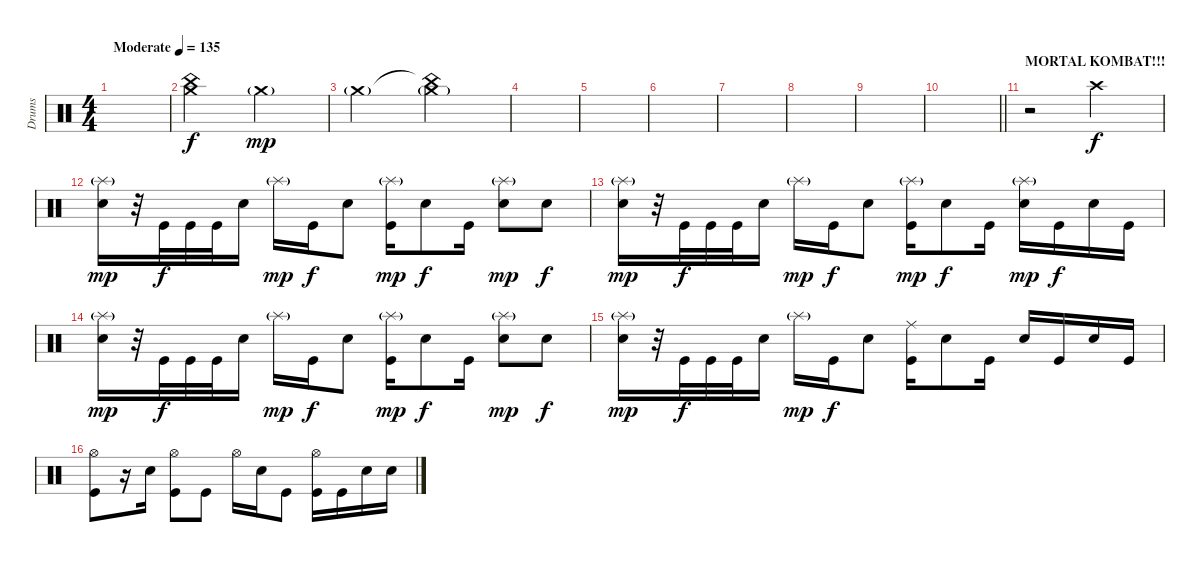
\track ("Drums" "Drums") {instrument percussion}
\staff {score}
\articulation defaults
\ts (4 4)
\tempo (135 "Moderate")
\clef neutral
\ks c
|
("China (hit)" "Crash medium (hit)").2 "Crash medium (hit)"{g}.2{dy mp} |
"Crash medium (hit)"{g}.2 ("China (hit)"{t} "Crash medium (hit)"{g}).2 |
|
|
|
|
|
|
\barLineRight lightlight
|
\section ("" "MORTAL KOMBAT!!!")
r.2 "Crash high (hit)".2{dy f volume 16} |
("Splash (hit)"{g} "Snare (hit) 2").16{dy mp} r.32 "Kick (hit)".32{dy f} "Kick (hit)".32 "Kick (hit)".32 "Snare (hit) 2".16 "Splash (hit)"{g}.16{dy mp} "Kick (hit)".16{dy f} "Snare (hit) 2".8 ("Splash (hit)"{g} "Kick (hit)").16{dy mp} "Snare (hit) 2".8{dy f} "Kick (hit)".16 ("Splash (hit)"{g} "Snare (hit) 2").8{dy mp} "Snare (hit) 2".8{dy f} |
("Splash (hit)"{g} "Snare (hit) 2").16{dy mp} r.32 "Kick (hit)".32{dy f} "Kick (hit)".32 "Kick (hit)".32 "Snare (hit) 2".16 "Splash (hit)"{g}.16{dy mp} "Kick (hit)".16{dy f} "Snare (hit) 2".8 ("Splash (hit)"{g} "Kick (hit)").16{dy mp} "Snare (hit) 2".8{dy f} "Kick (hit)".16 ("Splash (hit)"{g} "Snare (hit) 2").16{dy mp} "Kick (hit)".16{dy f} "Snare (hit) 2".16 "Kick (hit)".16 |
("Splash (hit)"{g} "Snare (hit) 2").16{dy mp} r.32 "Kick (hit)".32{dy f} "Kick (hit)".32 "Kick (hit)".32 "Snare (hit) 2".16 "Splash (hit)"{g}.16{dy mp} "Kick (hit)".16{dy f} "Snare (hit) 2".8 ("Splash (hit)"{g} "Kick (hit)").16{dy mp} "Snare (hit) 2".8{dy f} "Kick (hit)".16 ("Splash (hit)"{g} "Snare (hit) 2").8{dy mp} "Snare (hit) 2".8{dy f} |
("Splash (hit)"{g} "Snare (hit) 2").16{dy mp} r.32 "Kick (hit)".32{dy f} "Kick (hit)".32 "Kick (hit)".32 "Snare (hit) 2".16 "Splash (hit)"{g}.16{dy mp} "Kick (hit)".16{dy f} "Snare (hit) 2".8 ("Ride (middle)" "Kick (hit)").16 "Snare (hit) 2".8 "Kick (hit)".16 "Snare (hit) 2".16 "Kick (hit)".16 "Snare (hit) 2".16 "Kick (hit)".16 |
("Hi-Hat (open)" "Kick (hit)").8 r.16 "Snare (hit) 2".16 ("Hi-Hat (open)" "Kick (hit)").8 "Kick (hit)".8 "Hi-Hat (open)".16 "Snare (hit) 2".16 "Kick (hit)".8 ("Hi-Hat (open)" "Kick (hit)").16 "Kick (hit)".16 "Snare (hit) 2".16 "Snare (hit) 2".16
